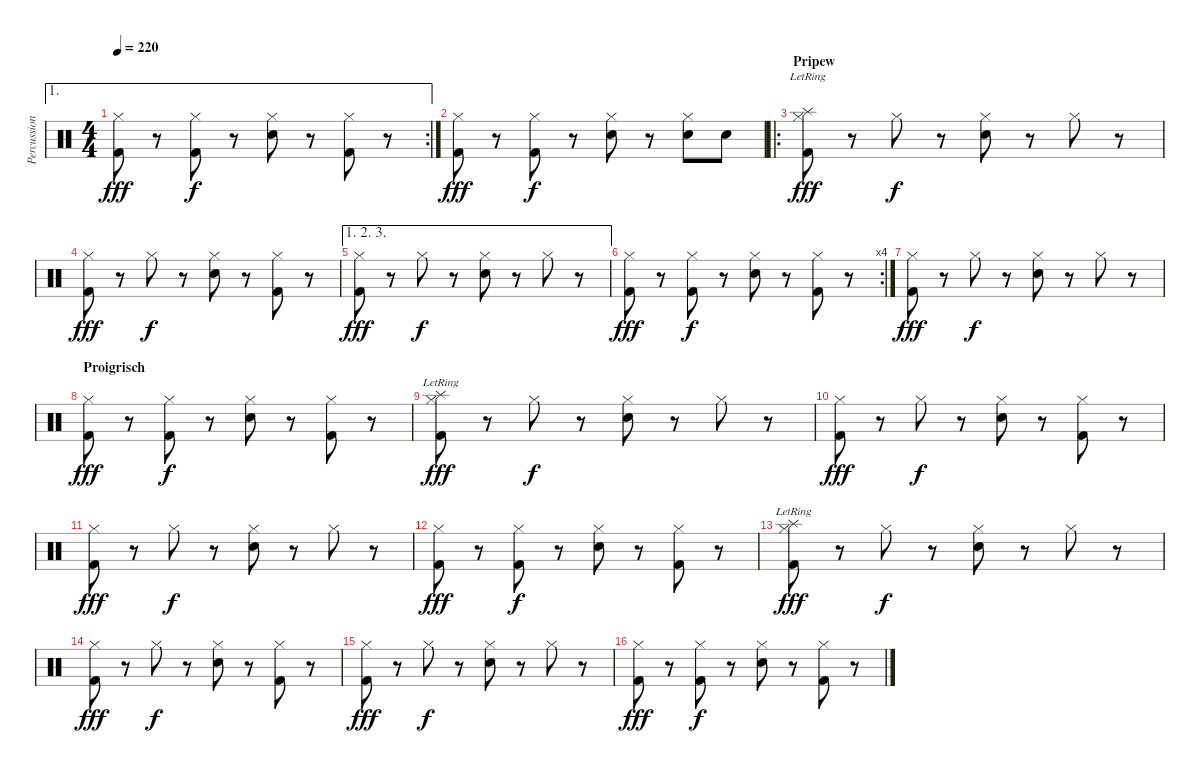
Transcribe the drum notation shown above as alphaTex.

\track ("Percussion" "Percussion") {instrument percussion}
\staff {score}
\articulation defaults
\ae 1
\rc 2
\ts (4 4)
\tempo 220
\clef neutral
\ks c
("Hi-Hat (closed)" "Kick (hit) 2").8{dy fff} r.8 ("Hi-Hat (closed)" "Kick (hit) 2").8{dy f} r.8 ("Hi-Hat (closed)" "Snare (hit) 2").8 r.8 ("Hi-Hat (closed)" "Kick (hit) 2").8 r.8 |
("Hi-Hat (closed)" "Kick (hit) 2").8{dy fff} r.8 ("Hi-Hat (closed)" "Kick (hit) 2").8{dy f} r.8 ("Hi-Hat (closed)" "Snare (hit) 2").8 r.8 ("Hi-Hat (closed)" "Snare (hit) 2").8 "Snare (hit) 2".8 |
\ro
\section ("" "Pripew")
("Hi-Hat (closed)" "Splash (hit)"{lr} "Kick (hit) 2").8{dy fff} r.8 "Hi-Hat (closed)".8{dy f} r.8 ("Hi-Hat (closed)" "Snare (hit) 2").8 r.8 "Hi-Hat (closed)".8 r.8 |
("Hi-Hat (closed)" "Kick (hit) 2").8{dy fff} r.8 "Hi-Hat (closed)".8{dy f} r.8 ("Hi-Hat (closed)" "Snare (hit) 2").8 r.8 ("Hi-Hat (closed)" "Kick (hit) 2").8 r.8 |
\ae (1 2 3)
("Hi-Hat (closed)" "Kick (hit) 2").8{dy fff} r.8 "Hi-Hat (closed)".8{dy f} r.8 ("Hi-Hat (closed)" "Snare (hit) 2").8 r.8 "Hi-Hat (closed)".8 r.8 |
\rc 4
("Hi-Hat (closed)" "Kick (hit) 2").8{dy fff} r.8 ("Hi-Hat (closed)" "Kick (hit) 2").8{dy f} r.8 ("Hi-Hat (closed)" "Snare (hit) 2").8 r.8 ("Hi-Hat (closed)" "Kick (hit) 2").8 r.8 |
("Hi-Hat (closed)" "Kick (hit) 2").8{dy fff} r.8 "Hi-Hat (closed)".8{dy f} r.8 ("Hi-Hat (closed)" "Snare (hit) 2").8 r.8 "Hi-Hat (closed)".8 r.8 |
\section ("" "Proigrisch")
("Hi-Hat (closed)" "Kick (hit) 2").8{dy fff} r.8 ("Hi-Hat (closed)" "Kick (hit) 2").8{dy f} r.8 ("Hi-Hat (closed)" "Snare (hit) 2").8 r.8 ("Hi-Hat (closed)" "Kick (hit) 2").8 r.8 |
("Hi-Hat (closed)" "Splash (hit)"{lr} "Kick (hit) 2").8{dy fff} r.8 "Hi-Hat (closed)".8{dy f} r.8 ("Hi-Hat (closed)" "Snare (hit) 2").8 r.8 "Hi-Hat (closed)".8 r.8 |
("Hi-Hat (closed)" "Kick (hit) 2").8{dy fff} r.8 "Hi-Hat (closed)".8{dy f} r.8 ("Hi-Hat (closed)" "Snare (hit) 2").8 r.8 ("Hi-Hat (closed)" "Kick (hit) 2").8 r.8 |
("Hi-Hat (closed)" "Kick (hit) 2").8{dy fff} r.8 "Hi-Hat (closed)".8{dy f} r.8 ("Hi-Hat (closed)" "Snare (hit) 2").8 r.8 "Hi-Hat (closed)".8 r.8 |
("Hi-Hat (closed)" "Kick (hit) 2").8{dy fff} r.8 ("Hi-Hat (closed)" "Kick (hit) 2").8{dy f} r.8 ("Hi-Hat (closed)" "Snare (hit) 2").8 r.8 ("Hi-Hat (closed)" "Kick (hit) 2").8 r.8 |
("Hi-Hat (closed)" "Splash (hit)"{lr} "Kick (hit) 2").8{dy fff} r.8 "Hi-Hat (closed)".8{dy f} r.8 ("Hi-Hat (closed)" "Snare (hit) 2").8 r.8 "Hi-Hat (closed)".8 r.8 |
("Hi-Hat (closed)" "Kick (hit) 2").8{dy fff} r.8 "Hi-Hat (closed)".8{dy f} r.8 ("Hi-Hat (closed)" "Snare (hit) 2").8 r.8 ("Hi-Hat (closed)" "Kick (hit) 2").8 r.8 |
("Hi-Hat (closed)" "Kick (hit) 2").8{dy fff} r.8 "Hi-Hat (closed)".8{dy f} r.8 ("Hi-Hat (closed)" "Snare (hit) 2").8 r.8 "Hi-Hat (closed)".8 r.8 |
("Hi-Hat (closed)" "Kick (hit) 2").8{dy fff} r.8 ("Hi-Hat (closed)" "Kick (hit) 2").8{dy f} r.8 ("Hi-Hat (closed)" "Snare (hit) 2").8 r.8 ("Hi-Hat (closed)" "Kick (hit) 2").8 r.8
